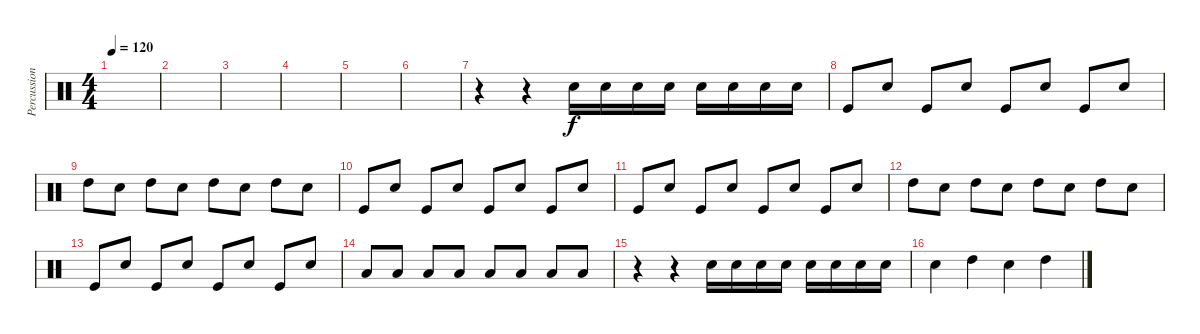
\track ("Percussion" "Percussion") {instrument percussion}
\staff {score}
\articulation defaults
\ts (4 4)
\tempo 120
\clef neutral
\ks c
|
|
|
|
|
|
r.4 r.4 "Snare (hit) 2".16 "Snare (hit) 2".16 "Snare (hit) 2".16 "Snare (hit) 2".16 "Snare (hit) 2".16 "Snare (hit) 2".16 "Snare (hit) 2".16 "Snare (hit) 2".16 |
"Kick (hit)".8 "Snare (hit) 2".8 "Kick (hit)".8 "Snare (hit) 2".8 "Kick (hit)".8 "Snare (hit) 2".8 "Kick (hit)".8 "Snare (hit) 2".8 |
"High Tom (hit)".8 "Snare (hit) 2".8 "High Tom (hit)".8 "Snare (hit) 2".8 "High Tom (hit)".8 "Snare (hit) 2".8 "High Tom (hit)".8 "Snare (hit) 2".8 |
"Kick (hit)".8 "Snare (hit) 2".8 "Kick (hit)".8 "Snare (hit) 2".8 "Kick (hit)".8 "Snare (hit) 2".8 "Kick (hit)".8 "Snare (hit) 2".8 |
"Kick (hit)".8 "Snare (hit) 2".8 "Kick (hit)".8 "Snare (hit) 2".8 "Kick (hit)".8 "Snare (hit) 2".8 "Kick (hit)".8 "Snare (hit) 2".8 |
"High Tom (hit)".8 "Snare (hit) 2".8 "High Tom (hit)".8 "Snare (hit) 2".8 "High Tom (hit)".8 "Snare (hit) 2".8 "High Tom (hit)".8 "Snare (hit) 2".8 |
"Kick (hit)".8 "Snare (hit) 2".8 "Kick (hit)".8 "Snare (hit) 2".8 "Kick (hit)".8 "Snare (hit) 2".8 "Kick (hit)".8 "Snare (hit) 2".8 |
"Low Tom (hit)".8 "Low Tom (hit)".8 "Low Tom (hit)".8 "Low Tom (hit)".8 "Low Tom (hit)".8 "Low Tom (hit)".8 "Low Tom (hit)".8 "Low Tom (hit)".8 |
r.4 r.4 "Snare (hit) 2".16 "Snare (hit) 2".16 "Snare (hit) 2".16 "Snare (hit) 2".16 "Snare (hit) 2".16 "Snare (hit) 2".16 "Snare (hit) 2".16 "Snare (hit) 2".16 |
"Snare (hit) 2".4 "High Tom (hit)".4 "Snare (hit) 2".4 "High Tom (hit)".4
